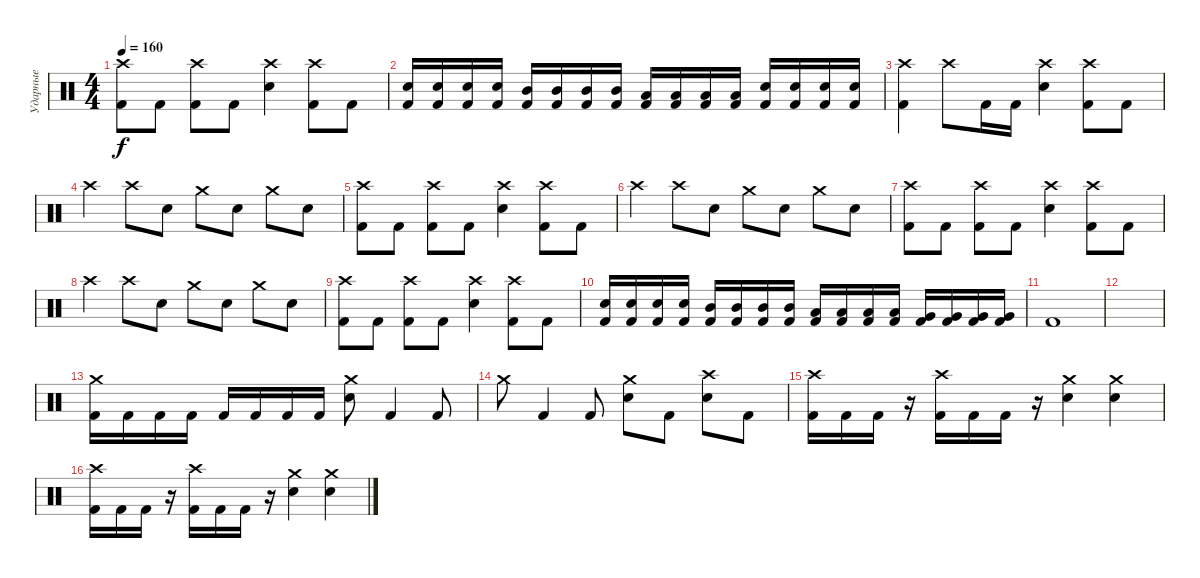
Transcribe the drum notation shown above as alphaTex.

\track ("Ударные" "Ударные") {instrument percussion}
\staff {score}
\articulation defaults
\ts (4 4)
\tempo 160
\clef neutral
\ks c
("Crash high (hit)" "Kick (hit) 2").8{dy f} "Kick (hit) 2".8 ("Crash high (hit)" "Kick (hit) 2").8 "Kick (hit) 2".8 ("Crash high (hit)" "Snare (hit) 2").4 ("Crash high (hit)" "Kick (hit) 2").8 "Kick (hit) 2".8 |
("Snare (hit) 2" "Kick (hit) 2").16 ("Snare (hit) 2" "Kick (hit) 2").16 ("Snare (hit) 2" "Kick (hit) 2").16 ("Snare (hit) 2" "Kick (hit) 2").16 ("Mid Tom (hit)" "Kick (hit) 2").16 ("Mid Tom (hit)" "Kick (hit) 2").16 ("Mid Tom (hit)" "Kick (hit) 2").16 ("Mid Tom (hit)" "Kick (hit) 2").16 ("Low Tom (hit)" "Kick (hit) 2").16 ("Low Tom (hit)" "Kick (hit) 2").16 ("Low Tom (hit)" "Kick (hit) 2").16 ("Low Tom (hit)" "Kick (hit) 2").16 ("Snare (hit) 2" "Kick (hit) 2").16 ("Snare (hit) 2" "Kick (hit) 2").16 ("Snare (hit) 2" "Kick (hit) 2").16 ("Snare (hit) 2" "Kick (hit) 2").16 |
("Crash high (hit)" "Kick (hit) 2").4 "Crash high (hit)".8 "Kick (hit) 2".16 "Kick (hit) 2".16 ("Crash high (hit)" "Snare (hit) 2").4 ("Crash high (hit)" "Kick (hit) 2").8 "Kick (hit) 2".8 |
"Crash high (hit)".4 "Crash high (hit)".8 "Snare (hit) 2".8 "Crash medium (hit)".8 "Snare (hit) 2".8 "Crash medium (hit)".8 "Snare (hit) 2".8 |
("Crash high (hit)" "Kick (hit) 2").8 "Kick (hit) 2".8 ("Crash high (hit)" "Kick (hit) 2").8 "Kick (hit) 2".8 ("Crash high (hit)" "Snare (hit) 2").4 ("Crash high (hit)" "Kick (hit) 2").8 "Kick (hit) 2".8 |
"Crash high (hit)".4 "Crash high (hit)".8 "Snare (hit) 2".8 "Crash medium (hit)".8 "Snare (hit) 2".8 "Crash medium (hit)".8 "Snare (hit) 2".8 |
("Crash high (hit)" "Kick (hit) 2").8 "Kick (hit) 2".8 ("Crash high (hit)" "Kick (hit) 2").8 "Kick (hit) 2".8 ("Crash high (hit)" "Snare (hit) 2").4 ("Crash high (hit)" "Kick (hit) 2").8 "Kick (hit) 2".8 |
"Crash high (hit)".4 "Crash high (hit)".8 "Snare (hit) 2".8 "Crash medium (hit)".8 "Snare (hit) 2".8 "Crash medium (hit)".8 "Snare (hit) 2".8 |
("Crash high (hit)" "Kick (hit) 2").8 "Kick (hit) 2".8 ("Crash high (hit)" "Kick (hit) 2").8 "Kick (hit) 2".8 ("Crash high (hit)" "Snare (hit) 2").4 ("Crash high (hit)" "Kick (hit) 2").8 "Kick (hit) 2".8 |
("Snare (hit) 2" "Kick (hit) 2").16 ("Snare (hit) 2" "Kick (hit) 2").16 ("Snare (hit) 2" "Kick (hit) 2").16 ("Snare (hit) 2" "Kick (hit) 2").16 ("Mid Tom (hit)" "Kick (hit) 2").16 ("Mid Tom (hit)" "Kick (hit) 2").16 ("Mid Tom (hit)" "Kick (hit) 2").16 ("Mid Tom (hit)" "Kick (hit) 2").16 ("Low Tom (hit)" "Kick (hit) 2").16 ("Low Tom (hit)" "Kick (hit) 2").16 ("Low Tom (hit)" "Kick (hit) 2").16 ("Low Tom (hit)" "Kick (hit) 2").16 ("Very Low Tom (hit)" "Kick (hit) 2").16 ("Very Low Tom (hit)" "Kick (hit) 2").16 ("Very Low Tom (hit)" "Kick (hit) 2").16 ("Very Low Tom (hit)" "Kick (hit) 2").16 |
"Kick (hit) 2".1 |
|
("Crash medium (hit)" "Kick (hit) 2").16 "Kick (hit) 2".16 "Kick (hit) 2".16 "Kick (hit) 2".16 "Kick (hit) 2".16 "Kick (hit) 2".16 "Kick (hit) 2".16 "Kick (hit) 2".16 ("Crash medium (hit)" "Snare (hit) 2").8 "Kick (hit) 2".4 "Kick (hit) 2".8 |
"Crash medium (hit)".8 "Kick (hit) 2".4 "Kick (hit) 2".8 ("Crash medium (hit)" "Snare (hit) 2").8 "Kick (hit) 2".8 ("Crash high (hit)" "Snare (hit) 2").8 "Kick (hit) 2".8 |
("Crash high (hit)" "Kick (hit) 2").16 "Kick (hit) 2".16 "Kick (hit) 2".16 r.16 ("Crash high (hit)" "Kick (hit) 2").16 "Kick (hit) 2".16 "Kick (hit) 2".16 r.16 ("Crash medium (hit)" "Snare (hit) 2").4 ("Crash medium (hit)" "Snare (hit) 2").4 |
("Crash high (hit)" "Kick (hit) 2").16 "Kick (hit) 2".16 "Kick (hit) 2".16 r.16 ("Crash high (hit)" "Kick (hit) 2").16 "Kick (hit) 2".16 "Kick (hit) 2".16 r.16 ("Crash medium (hit)" "Snare (hit) 2").4 ("Crash medium (hit)" "Snare (hit) 2").4
